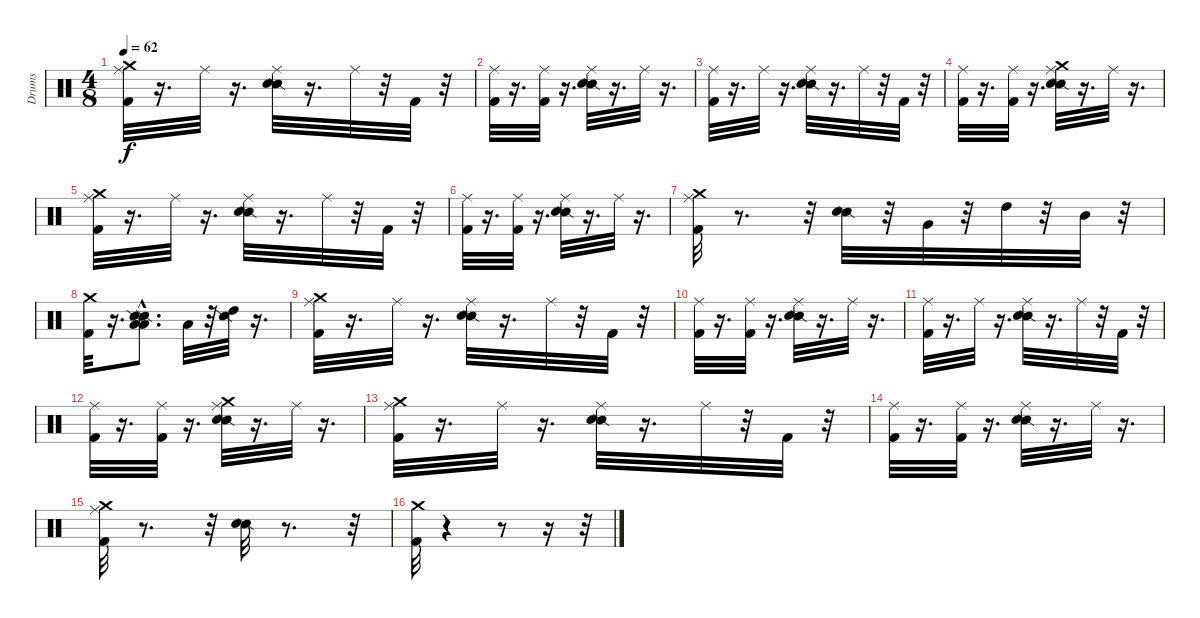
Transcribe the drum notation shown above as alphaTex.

\track ("Drums" "Drums") {instrument percussion}
\staff {score}
\articulation defaults
\ts (4 8)
\tempo 62
\clef neutral
\ks c
("Kick (hit) 2" "Ride (middle)" "Crash medium (hit)").32{dy f} r.16{d} "Ride (middle)".32 r.16{d} ("Snare (side stick) 2" "Snare (hit) 2" "Ride (middle)").32 r.16{d} "Ride (middle)".32 r.32 "Kick (hit) 2".32 r.32 |
("Kick (hit) 2" "Ride (middle)").32 r.16{d} ("Kick (hit) 2" "Ride (middle)").32 r.16{d} ("Snare (side stick) 2" "Snare (hit) 2" "Ride (middle)").32 r.16{d} "Ride (middle)".32 r.16{d} |
("Kick (hit) 2" "Ride (middle)").32 r.16{d} "Ride (middle)".32 r.16{d} ("Snare (side stick) 2" "Snare (hit) 2" "Ride (middle)").32 r.16{d} "Ride (middle)".32 r.32 "Kick (hit) 2".32 r.32 |
("Kick (hit) 2" "Ride (middle)").32 r.16{d} ("Kick (hit) 2" "Ride (middle)").32 r.16{d} ("Snare (side stick) 2" "Snare (hit) 2" "Ride (middle)" "Crash medium (hit)").32 r.16{d} "Ride (middle)".32 r.16{d} |
("Kick (hit) 2" "Ride (middle)" "Crash medium (hit)").32 r.16{d} "Ride (middle)".32 r.16{d} ("Snare (side stick) 2" "Snare (hit) 2" "Ride (middle)").32 r.16{d} "Ride (middle)".32 r.32 "Kick (hit) 2".32 r.32 |
("Kick (hit) 2" "Ride (middle)").32 r.16{d} ("Kick (hit) 2" "Ride (middle)").32 r.16{d} ("Snare (side stick) 2" "Snare (hit) 2" "Ride (middle)").32 r.16{d} "Ride (middle)".32 r.16{d} |
("Kick (hit) 2" "Ride (middle)" "Crash medium (hit)").32 r.8{d} r.32 ("Snare (side stick) 2" "Snare (hit) 2").32 r.32 "Very Low Tom (hit)".32 r.32 "High Tom (hit)".32 r.32 "Mid Tom (hit)".32 r.32 |
("Kick (hit) 2" "Crash medium (hit)").32 r.16{d} ("Low Tom (hit)"{hac} "Snare (side stick) 2"{hac} "Low Tom (hit)" "Snare (side stick) 2").8{d} "Low Tom (hit)".32 r.32 ("High Tom (hit)" "Snare (side stick) 2").32 r.16{d} |
("Kick (hit) 2" "Ride (middle)" "Crash medium (hit)").32 r.16{d} "Ride (middle)".32 r.16{d} ("Snare (side stick) 2" "Snare (hit) 2" "Ride (middle)").32 r.16{d} "Ride (middle)".32 r.32 "Kick (hit) 2".32 r.32 |
("Kick (hit) 2" "Ride (middle)").32 r.16{d} ("Kick (hit) 2" "Ride (middle)").32 r.16{d} ("Snare (side stick) 2" "Snare (hit) 2" "Ride (middle)").32 r.16{d} "Ride (middle)".32 r.16{d} |
("Kick (hit) 2" "Ride (middle)").32 r.16{d} "Ride (middle)".32 r.16{d} ("Snare (side stick) 2" "Snare (hit) 2" "Ride (middle)").32 r.16{d} "Ride (middle)".32 r.32 "Kick (hit) 2".32 r.32 |
("Kick (hit) 2" "Ride (middle)").32 r.16{d} ("Kick (hit) 2" "Ride (middle)").32 r.16{d} ("Snare (side stick) 2" "Snare (hit) 2" "Ride (middle)" "Crash medium (hit)").32 r.16{d} "Ride (middle)".32 r.16{d} |
("Kick (hit) 2" "Ride (middle)" "Crash medium (hit)").32 r.16{d} "Ride (middle)".32 r.16{d} ("Snare (side stick) 2" "Snare (hit) 2" "Ride (middle)").32 r.16{d} "Ride (middle)".32 r.32 "Kick (hit) 2".32 r.32 |
("Kick (hit) 2" "Ride (middle)").32 r.16{d} ("Kick (hit) 2" "Ride (middle)").32 r.16{d} ("Snare (side stick) 2" "Snare (hit) 2" "Ride (middle)").32 r.16{d} "Ride (middle)".32 r.16{d} |
("Kick (hit) 2" "Ride (middle)" "Crash medium (hit)").32 r.8{d} r.32 ("Snare (side stick) 2" "Snare (hit) 2").32 r.8{d} r.32 |
("Kick (hit) 2" "Crash medium (hit)").32 r.4 r.8 r.16 r.32
